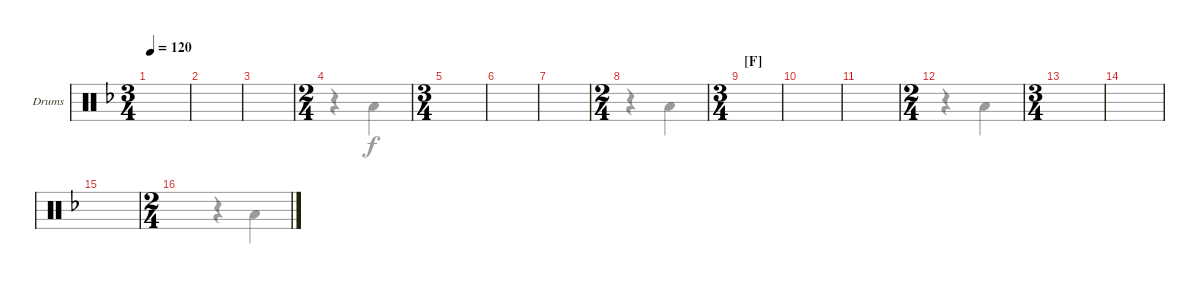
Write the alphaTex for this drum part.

\defaultSystemsLayout 4
\bracketExtendMode groupsimilarinstruments
\firstSystemTrackNameOrientation horizontal
\otherSystemsTrackNameOrientation horizontal
\track ("Drumkit" "Drums") {instrument percussion}
\staff {score}
\articulation defaults
\voice
\ts (3 4)
\tempo 120
\clef neutral
\ks f
|
|
|
\ts (2 4)
|
\ts (3 4)
|
|
|
\ts (2 4)
|
\ts (3 4)
\section ("F" "")
|
|
|
\ts (2 4)
|
\ts (3 4)
|
|
|
\ts (2 4)
\voice
\clef neutral
\ks f
|
|
|
r.4 "Low Tom (hit)".4 |
|
|
|
r.4 "Low Tom (hit)".4 |
|
|
|
r.4 "Low Tom (hit)".4 |
|
|
|
r.4 "Low Tom (hit)".4
